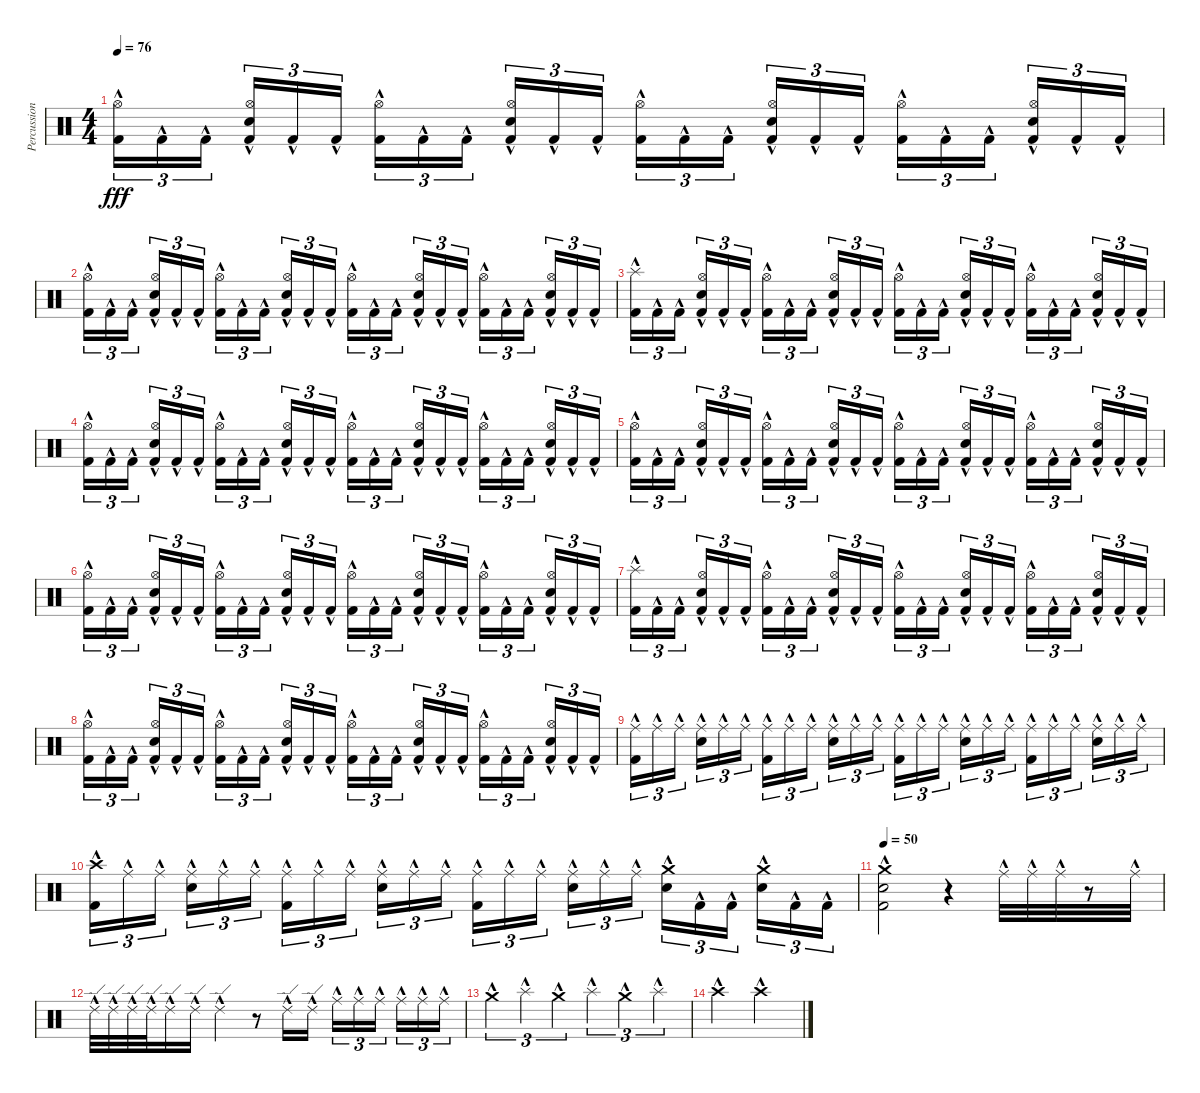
\track ("Percussion" "Percussion") {instrument percussion}
\staff {score}
\articulation defaults
\ts (4 4)
\tempo 76
\clef neutral
\ks c
("Kick (hit) 2"{hac} "Hi-Hat (open)"{hac}).16{tu (3 2) dy fff} "Kick (hit) 2"{hac}.16{tu (3 2)} "Kick (hit) 2"{hac}.16{tu (3 2) beam splitsecondary} ("Kick (hit) 2"{hac} "Electric Snare (hit)"{hac} "Hi-Hat (open)"{hac}).16{tu (3 2)} "Kick (hit) 2"{hac}.16{tu (3 2)} "Kick (hit) 2"{hac}.16{tu (3 2)} ("Hi-Hat (open)"{hac} "Kick (hit) 2"{hac}).16{tu (3 2)} "Kick (hit) 2"{hac}.16{tu (3 2)} "Kick (hit) 2"{hac}.16{tu (3 2) beam splitsecondary} ("Kick (hit) 2"{hac} "Electric Snare (hit)"{hac} "Hi-Hat (open)"{hac}).16{tu (3 2)} "Kick (hit) 2"{hac}.16{tu (3 2)} "Kick (hit) 2"{hac}.16{tu (3 2)} ("Kick (hit) 2"{hac} "Hi-Hat (open)"{hac}).16{tu (3 2)} "Kick (hit) 2"{hac}.16{tu (3 2)} "Kick (hit) 2"{hac}.16{tu (3 2) beam splitsecondary} ("Kick (hit) 2"{hac} "Electric Snare (hit)"{hac} "Hi-Hat (open)"{hac}).16{tu (3 2)} "Kick (hit) 2"{hac}.16{tu (3 2)} "Kick (hit) 2"{hac}.16{tu (3 2)} ("Hi-Hat (open)"{hac} "Kick (hit) 2"{hac}).16{tu (3 2)} "Kick (hit) 2"{hac}.16{tu (3 2)} "Kick (hit) 2"{hac}.16{tu (3 2) beam splitsecondary} ("Kick (hit) 2"{hac} "Electric Snare (hit)"{hac} "Hi-Hat (open)"{hac}).16{tu (3 2)} "Kick (hit) 2"{hac}.16{tu (3 2)} "Kick (hit) 2"{hac}.16{tu (3 2)} |
("Kick (hit) 2"{hac} "Hi-Hat (open)"{hac}).16{tu (3 2)} "Kick (hit) 2"{hac}.16{tu (3 2)} "Kick (hit) 2"{hac}.16{tu (3 2) beam splitsecondary} ("Kick (hit) 2"{hac} "Electric Snare (hit)"{hac} "Hi-Hat (open)"{hac}).16{tu (3 2)} "Kick (hit) 2"{hac}.16{tu (3 2)} "Kick (hit) 2"{hac}.16{tu (3 2)} ("Hi-Hat (open)"{hac} "Kick (hit) 2"{hac}).16{tu (3 2)} "Kick (hit) 2"{hac}.16{tu (3 2)} "Kick (hit) 2"{hac}.16{tu (3 2) beam splitsecondary} ("Kick (hit) 2"{hac} "Electric Snare (hit)"{hac} "Hi-Hat (open)"{hac}).16{tu (3 2)} "Kick (hit) 2"{hac}.16{tu (3 2)} "Kick (hit) 2"{hac}.16{tu (3 2)} ("Kick (hit) 2"{hac} "Hi-Hat (open)"{hac}).16{tu (3 2)} "Kick (hit) 2"{hac}.16{tu (3 2)} "Kick (hit) 2"{hac}.16{tu (3 2) beam splitsecondary} ("Kick (hit) 2"{hac} "Electric Snare (hit)"{hac} "Hi-Hat (open)"{hac}).16{tu (3 2)} "Kick (hit) 2"{hac}.16{tu (3 2)} "Kick (hit) 2"{hac}.16{tu (3 2)} ("Hi-Hat (open)"{hac} "Kick (hit) 2"{hac}).16{tu (3 2)} "Kick (hit) 2"{hac}.16{tu (3 2)} "Kick (hit) 2"{hac}.16{tu (3 2) beam splitsecondary} ("Kick (hit) 2"{hac} "Electric Snare (hit)"{hac} "Hi-Hat (open)"{hac}).16{tu (3 2)} "Kick (hit) 2"{hac}.16{tu (3 2)} "Kick (hit) 2"{hac}.16{tu (3 2)} |
("Kick (hit) 2"{hac} "Splash (hit)"{hac}).16{tu (3 2)} "Kick (hit) 2"{hac}.16{tu (3 2)} "Kick (hit) 2"{hac}.16{tu (3 2) beam splitsecondary} ("Kick (hit) 2"{hac} "Electric Snare (hit)"{hac} "Hi-Hat (open)"{hac}).16{tu (3 2)} "Kick (hit) 2"{hac}.16{tu (3 2)} "Kick (hit) 2"{hac}.16{tu (3 2)} ("Hi-Hat (open)"{hac} "Kick (hit) 2"{hac}).16{tu (3 2)} "Kick (hit) 2"{hac}.16{tu (3 2)} "Kick (hit) 2"{hac}.16{tu (3 2) beam splitsecondary} ("Kick (hit) 2"{hac} "Electric Snare (hit)"{hac} "Hi-Hat (open)"{hac}).16{tu (3 2)} "Kick (hit) 2"{hac}.16{tu (3 2)} "Kick (hit) 2"{hac}.16{tu (3 2)} ("Kick (hit) 2"{hac} "Hi-Hat (open)"{hac}).16{tu (3 2)} "Kick (hit) 2"{hac}.16{tu (3 2)} "Kick (hit) 2"{hac}.16{tu (3 2) beam splitsecondary} ("Kick (hit) 2"{hac} "Electric Snare (hit)"{hac} "Hi-Hat (open)"{hac}).16{tu (3 2)} "Kick (hit) 2"{hac}.16{tu (3 2)} "Kick (hit) 2"{hac}.16{tu (3 2)} ("Hi-Hat (open)"{hac} "Kick (hit) 2"{hac}).16{tu (3 2)} "Kick (hit) 2"{hac}.16{tu (3 2)} "Kick (hit) 2"{hac}.16{tu (3 2) beam splitsecondary} ("Kick (hit) 2"{hac} "Electric Snare (hit)"{hac} "Hi-Hat (open)"{hac}).16{tu (3 2)} "Kick (hit) 2"{hac}.16{tu (3 2)} "Kick (hit) 2"{hac}.16{tu (3 2)} |
("Kick (hit) 2"{hac} "Hi-Hat (open)"{hac}).16{tu (3 2)} "Kick (hit) 2"{hac}.16{tu (3 2)} "Kick (hit) 2"{hac}.16{tu (3 2) beam splitsecondary} ("Kick (hit) 2"{hac} "Electric Snare (hit)"{hac} "Hi-Hat (open)"{hac}).16{tu (3 2)} "Kick (hit) 2"{hac}.16{tu (3 2)} "Kick (hit) 2"{hac}.16{tu (3 2)} ("Hi-Hat (open)"{hac} "Kick (hit) 2"{hac}).16{tu (3 2)} "Kick (hit) 2"{hac}.16{tu (3 2)} "Kick (hit) 2"{hac}.16{tu (3 2) beam splitsecondary} ("Kick (hit) 2"{hac} "Electric Snare (hit)"{hac} "Hi-Hat (open)"{hac}).16{tu (3 2)} "Kick (hit) 2"{hac}.16{tu (3 2)} "Kick (hit) 2"{hac}.16{tu (3 2)} ("Kick (hit) 2"{hac} "Hi-Hat (open)"{hac}).16{tu (3 2)} "Kick (hit) 2"{hac}.16{tu (3 2)} "Kick (hit) 2"{hac}.16{tu (3 2) beam splitsecondary} ("Kick (hit) 2"{hac} "Electric Snare (hit)"{hac} "Hi-Hat (open)"{hac}).16{tu (3 2)} "Kick (hit) 2"{hac}.16{tu (3 2)} "Kick (hit) 2"{hac}.16{tu (3 2)} ("Hi-Hat (open)"{hac} "Kick (hit) 2"{hac}).16{tu (3 2)} "Kick (hit) 2"{hac}.16{tu (3 2)} "Kick (hit) 2"{hac}.16{tu (3 2) beam splitsecondary} ("Kick (hit) 2"{hac} "Electric Snare (hit)"{hac} "Hi-Hat (open)"{hac}).16{tu (3 2)} "Kick (hit) 2"{hac}.16{tu (3 2)} "Kick (hit) 2"{hac}.16{tu (3 2)} |
("Kick (hit) 2"{hac} "Hi-Hat (open)"{hac}).16{tu (3 2)} "Kick (hit) 2"{hac}.16{tu (3 2)} "Kick (hit) 2"{hac}.16{tu (3 2) beam splitsecondary} ("Kick (hit) 2"{hac} "Electric Snare (hit)"{hac} "Hi-Hat (open)"{hac}).16{tu (3 2)} "Kick (hit) 2"{hac}.16{tu (3 2)} "Kick (hit) 2"{hac}.16{tu (3 2)} ("Hi-Hat (open)"{hac} "Kick (hit) 2"{hac}).16{tu (3 2)} "Kick (hit) 2"{hac}.16{tu (3 2)} "Kick (hit) 2"{hac}.16{tu (3 2) beam splitsecondary} ("Kick (hit) 2"{hac} "Electric Snare (hit)"{hac} "Hi-Hat (open)"{hac}).16{tu (3 2)} "Kick (hit) 2"{hac}.16{tu (3 2)} "Kick (hit) 2"{hac}.16{tu (3 2)} ("Kick (hit) 2"{hac} "Hi-Hat (open)"{hac}).16{tu (3 2)} "Kick (hit) 2"{hac}.16{tu (3 2)} "Kick (hit) 2"{hac}.16{tu (3 2) beam splitsecondary} ("Kick (hit) 2"{hac} "Electric Snare (hit)"{hac} "Hi-Hat (open)"{hac}).16{tu (3 2)} "Kick (hit) 2"{hac}.16{tu (3 2)} "Kick (hit) 2"{hac}.16{tu (3 2)} ("Hi-Hat (open)"{hac} "Kick (hit) 2"{hac}).16{tu (3 2)} "Kick (hit) 2"{hac}.16{tu (3 2)} "Kick (hit) 2"{hac}.16{tu (3 2) beam splitsecondary} ("Kick (hit) 2"{hac} "Electric Snare (hit)"{hac} "Hi-Hat (open)"{hac}).16{tu (3 2)} "Kick (hit) 2"{hac}.16{tu (3 2)} "Kick (hit) 2"{hac}.16{tu (3 2)} |
("Kick (hit) 2"{hac} "Hi-Hat (open)"{hac}).16{tu (3 2)} "Kick (hit) 2"{hac}.16{tu (3 2)} "Kick (hit) 2"{hac}.16{tu (3 2) beam splitsecondary} ("Kick (hit) 2"{hac} "Electric Snare (hit)"{hac} "Hi-Hat (open)"{hac}).16{tu (3 2)} "Kick (hit) 2"{hac}.16{tu (3 2)} "Kick (hit) 2"{hac}.16{tu (3 2)} ("Hi-Hat (open)"{hac} "Kick (hit) 2"{hac}).16{tu (3 2)} "Kick (hit) 2"{hac}.16{tu (3 2)} "Kick (hit) 2"{hac}.16{tu (3 2) beam splitsecondary} ("Kick (hit) 2"{hac} "Electric Snare (hit)"{hac} "Hi-Hat (open)"{hac}).16{tu (3 2)} "Kick (hit) 2"{hac}.16{tu (3 2)} "Kick (hit) 2"{hac}.16{tu (3 2)} ("Kick (hit) 2"{hac} "Hi-Hat (open)"{hac}).16{tu (3 2)} "Kick (hit) 2"{hac}.16{tu (3 2)} "Kick (hit) 2"{hac}.16{tu (3 2) beam splitsecondary} ("Kick (hit) 2"{hac} "Electric Snare (hit)"{hac} "Hi-Hat (open)"{hac}).16{tu (3 2)} "Kick (hit) 2"{hac}.16{tu (3 2)} "Kick (hit) 2"{hac}.16{tu (3 2)} ("Hi-Hat (open)"{hac} "Kick (hit) 2"{hac}).16{tu (3 2)} "Kick (hit) 2"{hac}.16{tu (3 2)} "Kick (hit) 2"{hac}.16{tu (3 2) beam splitsecondary} ("Kick (hit) 2"{hac} "Electric Snare (hit)"{hac} "Hi-Hat (open)"{hac}).16{tu (3 2)} "Kick (hit) 2"{hac}.16{tu (3 2)} "Kick (hit) 2"{hac}.16{tu (3 2)} |
("Kick (hit) 2"{hac} "Splash (hit)"{hac}).16{tu (3 2)} "Kick (hit) 2"{hac}.16{tu (3 2)} "Kick (hit) 2"{hac}.16{tu (3 2) beam splitsecondary} ("Kick (hit) 2"{hac} "Electric Snare (hit)"{hac} "Hi-Hat (open)"{hac}).16{tu (3 2)} "Kick (hit) 2"{hac}.16{tu (3 2)} "Kick (hit) 2"{hac}.16{tu (3 2)} ("Hi-Hat (open)"{hac} "Kick (hit) 2"{hac}).16{tu (3 2)} "Kick (hit) 2"{hac}.16{tu (3 2)} "Kick (hit) 2"{hac}.16{tu (3 2) beam splitsecondary} ("Kick (hit) 2"{hac} "Electric Snare (hit)"{hac} "Hi-Hat (open)"{hac}).16{tu (3 2)} "Kick (hit) 2"{hac}.16{tu (3 2)} "Kick (hit) 2"{hac}.16{tu (3 2)} ("Kick (hit) 2"{hac} "Hi-Hat (open)"{hac}).16{tu (3 2)} "Kick (hit) 2"{hac}.16{tu (3 2)} "Kick (hit) 2"{hac}.16{tu (3 2) beam splitsecondary} ("Kick (hit) 2"{hac} "Electric Snare (hit)"{hac} "Hi-Hat (open)"{hac}).16{tu (3 2)} "Kick (hit) 2"{hac}.16{tu (3 2)} "Kick (hit) 2"{hac}.16{tu (3 2)} ("Hi-Hat (open)"{hac} "Kick (hit) 2"{hac}).16{tu (3 2)} "Kick (hit) 2"{hac}.16{tu (3 2)} "Kick (hit) 2"{hac}.16{tu (3 2) beam splitsecondary} ("Kick (hit) 2"{hac} "Electric Snare (hit)"{hac} "Hi-Hat (open)"{hac}).16{tu (3 2)} "Kick (hit) 2"{hac}.16{tu (3 2)} "Kick (hit) 2"{hac}.16{tu (3 2)} |
("Kick (hit) 2"{hac} "Hi-Hat (open)"{hac}).16{tu (3 2)} "Kick (hit) 2"{hac}.16{tu (3 2)} "Kick (hit) 2"{hac}.16{tu (3 2) beam splitsecondary} ("Kick (hit) 2"{hac} "Electric Snare (hit)"{hac} "Hi-Hat (open)"{hac}).16{tu (3 2)} "Kick (hit) 2"{hac}.16{tu (3 2)} "Kick (hit) 2"{hac}.16{tu (3 2)} ("Hi-Hat (open)"{hac} "Kick (hit) 2"{hac}).16{tu (3 2)} "Kick (hit) 2"{hac}.16{tu (3 2)} "Kick (hit) 2"{hac}.16{tu (3 2) beam splitsecondary} ("Kick (hit) 2"{hac} "Electric Snare (hit)"{hac} "Hi-Hat (open)"{hac}).16{tu (3 2)} "Kick (hit) 2"{hac}.16{tu (3 2)} "Kick (hit) 2"{hac}.16{tu (3 2)} ("Kick (hit) 2"{hac} "Hi-Hat (open)"{hac}).16{tu (3 2)} "Kick (hit) 2"{hac}.16{tu (3 2)} "Kick (hit) 2"{hac}.16{tu (3 2) beam splitsecondary} ("Kick (hit) 2"{hac} "Electric Snare (hit)"{hac} "Hi-Hat (open)"{hac}).16{tu (3 2)} "Kick (hit) 2"{hac}.16{tu (3 2)} "Kick (hit) 2"{hac}.16{tu (3 2)} ("Hi-Hat (open)"{hac} "Kick (hit) 2"{hac}).16{tu (3 2)} "Kick (hit) 2"{hac}.16{tu (3 2)} "Kick (hit) 2"{hac}.16{tu (3 2) beam splitsecondary} ("Kick (hit) 2"{hac} "Electric Snare (hit)"{hac} "Hi-Hat (open)"{hac}).16{tu (3 2)} "Kick (hit) 2"{hac}.16{tu (3 2)} "Kick (hit) 2"{hac}.16{tu (3 2)} |
("Ride (middle)"{hac} "Kick (hit) 2"{hac}).16{tu (3 2)} "Ride (middle)"{hac}.16{tu (3 2)} "Ride (middle)"{hac}.16{tu (3 2) beam splitsecondary} ("Ride (middle)"{hac} "Electric Snare (hit)"{hac}).16{tu (3 2)} "Ride (middle)"{hac}.16{tu (3 2)} "Ride (middle)"{hac}.16{tu (3 2)} ("Ride (middle)"{hac} "Kick (hit) 2"{hac}).16{tu (3 2)} "Ride (middle)"{hac}.16{tu (3 2)} "Ride (middle)"{hac}.16{tu (3 2) beam splitsecondary} ("Ride (middle)"{hac} "Electric Snare (hit)"{hac}).16{tu (3 2)} "Ride (middle)"{hac}.16{tu (3 2)} "Ride (middle)"{hac}.16{tu (3 2)} ("Ride (middle)"{hac} "Kick (hit) 2"{hac}).16{tu (3 2)} "Ride (middle)"{hac}.16{tu (3 2)} "Ride (middle)"{hac}.16{tu (3 2) beam splitsecondary} ("Ride (middle)"{hac} "Electric Snare (hit)"{hac}).16{tu (3 2)} "Ride (middle)"{hac}.16{tu (3 2)} "Ride (middle)"{hac}.16{tu (3 2)} ("Ride (middle)"{hac} "Kick (hit) 2"{hac}).16{tu (3 2)} "Ride (middle)"{hac}.16{tu (3 2)} "Ride (middle)"{hac}.16{tu (3 2) beam splitsecondary} ("Ride (middle)"{hac} "Electric Snare (hit)"{hac}).16{tu (3 2)} "Ride (middle)"{hac}.16{tu (3 2)} "Ride (middle)"{hac}.16{tu (3 2)} |
("Crash high (hit)"{hac} "Kick (hit) 2"{hac}).16{tu (3 2)} "Ride (middle)"{hac}.16{tu (3 2)} "Ride (middle)"{hac}.16{tu (3 2) beam splitsecondary} ("Ride (middle)"{hac} "Electric Snare (hit)"{hac}).16{tu (3 2)} "Ride (middle)"{hac}.16{tu (3 2)} "Ride (middle)"{hac}.16{tu (3 2)} ("Ride (middle)"{hac} "Kick (hit) 2"{hac}).16{tu (3 2)} "Ride (middle)"{hac}.16{tu (3 2)} "Ride (middle)"{hac}.16{tu (3 2) beam splitsecondary} ("Ride (middle)"{hac} "Electric Snare (hit)"{hac}).16{tu (3 2)} "Ride (middle)"{hac}.16{tu (3 2)} "Ride (middle)"{hac}.16{tu (3 2)} ("Ride (middle)"{hac} "Kick (hit) 2"{hac}).16{tu (3 2)} "Ride (middle)"{hac}.16{tu (3 2)} "Ride (middle)"{hac}.16{tu (3 2) beam splitsecondary} ("Ride (middle)"{hac} "Electric Snare (hit)"{hac}).16{tu (3 2)} "Ride (middle)"{hac}.16{tu (3 2)} "Ride (middle)"{hac}.16{tu (3 2)} ("Crash medium (hit)"{hac} "Electric Snare (hit)"{hac}).16{tu (3 2)} "Kick (hit) 2"{hac}.16{tu (3 2)} "Kick (hit) 2"{hac}.16{tu (3 2) beam splitsecondary} ("Crash medium (hit)"{hac} "Electric Snare (hit)"{hac}).16{tu (3 2)} "Kick (hit) 2"{hac}.16{tu (3 2)} "Kick (hit) 2"{hac}.16{tu (3 2)} |
\tempo 50
("Electric Snare (hit)"{hac} "Kick (hit) 2"{hac} "Crash medium (hit)"{hac}).2 r.4 "Ride (middle)"{hac}.32 "Ride (middle)"{hac}.32 "Ride (middle)"{hac}.32 r.8 "Ride (middle)"{hac}.32 |
"Ride (edge) 2"{hac}.32 "Ride (edge) 2"{hac}.32 "Ride (edge) 2"{hac}.32 "Ride (edge) 2"{hac}.32 "Ride (edge) 2"{hac}.16 "Ride (edge) 2"{hac}.16 "Ride (edge) 2"{hac}.4 r.8 "Ride (edge) 2"{hac}.16 "Ride (edge) 2"{hac}.16 "Ride (middle)"{hac}.16{tu (3 2)} "Ride (middle)"{hac}.16{tu (3 2)} "Ride (middle)"{hac}.16{tu (3 2) beam splitsecondary} "Ride (middle)"{hac}.16{tu (3 2)} "Ride (middle)"{hac}.16{tu (3 2)} "Ride (middle)"{hac}.16{tu (3 2)} |
"Crash medium (hit)"{hac}.4{tu (3 2)} "Splash (hit)"{hac}.4{tu (3 2)} "Crash medium (hit)"{hac}.4{tu (3 2)} "Splash (hit)"{hac}.4{tu (3 2)} "Crash medium (hit)"{hac}.4{tu (3 2)} "Splash (hit)"{hac}.4{tu (3 2)} |
"Crash high (hit)"{hac}.2 "Crash high (hit)"{hac}.2
